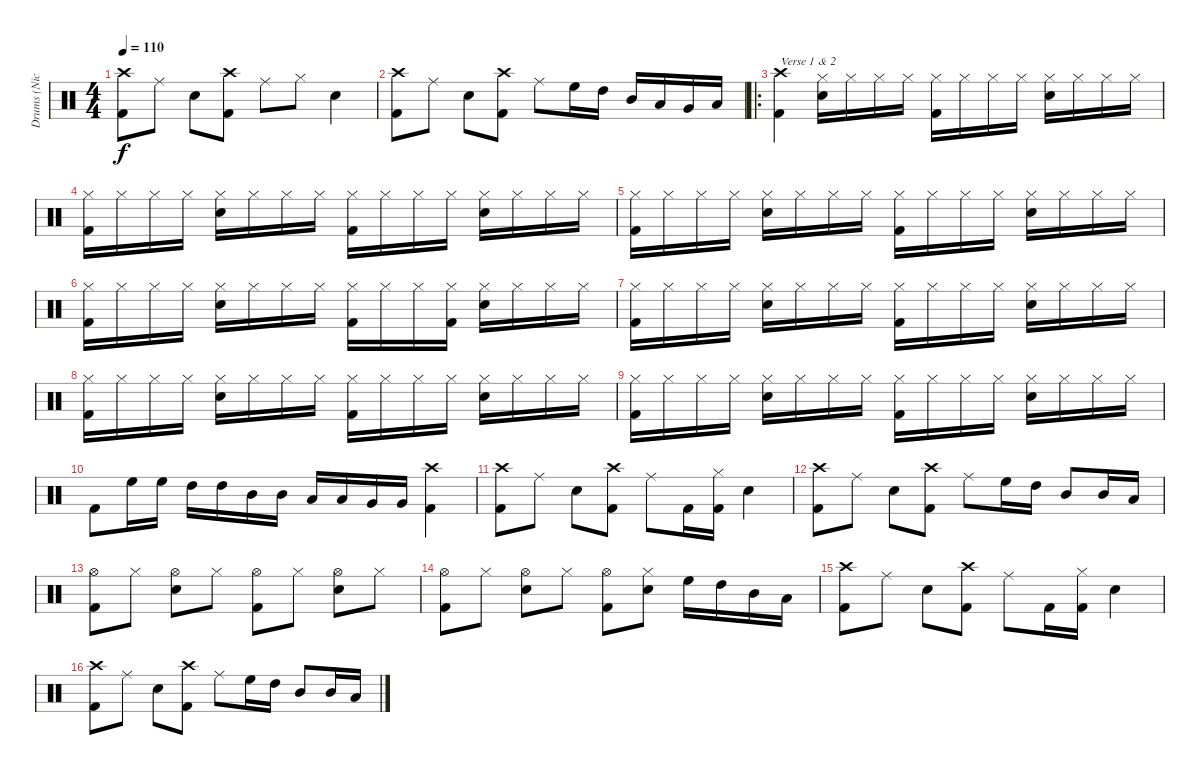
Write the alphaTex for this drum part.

\track ("Drums (Nicko)" "Drums (Nic") {instrument percussion}
\staff {score}
\articulation defaults
\ts (4 4)
\tempo 110
\clef neutral
\ks c
("Crash high (hit)" "Kick (hit) 2").8{dy f} "Ride (middle)".8 "Snare (hit) 2".8 ("Crash high (hit)" "Kick (hit) 2").8 "Ride (middle)".8 "Hi-Hat (closed)".8 "Snare (hit) 2".4 |
("Crash high (hit)" "Kick (hit) 2").8 "Ride (middle)".8 "Snare (hit) 2".8 ("Crash high (hit)" "Kick (hit) 2").8 "Ride (middle)".8 "High Floor Tom (hit)".16 "High Tom (hit)".16 "Mid Tom (hit)".16 "Low Tom (hit)".16 "Very Low Tom (hit)".16 "Low Floor Tom (hit)".16 |
\ro
("Crash high (hit)" "Kick (hit) 2").4{txt "Verse 1 & 2"} ("Hi-Hat (closed)" "Snare (hit) 2").16 "Hi-Hat (closed)".16 "Hi-Hat (closed)".16 "Hi-Hat (closed)".16 ("Hi-Hat (closed)" "Kick (hit) 2").16 "Hi-Hat (closed)".16 "Hi-Hat (closed)".16 "Hi-Hat (closed)".16 ("Hi-Hat (closed)" "Snare (hit) 2").16 "Hi-Hat (closed)".16 "Hi-Hat (closed)".16 "Hi-Hat (closed)".16 |
("Hi-Hat (closed)" "Kick (hit) 2").16 "Hi-Hat (closed)".16 "Hi-Hat (closed)".16 "Hi-Hat (closed)".16 ("Hi-Hat (closed)" "Snare (hit) 2").16 "Hi-Hat (closed)".16 "Hi-Hat (closed)".16 "Hi-Hat (closed)".16 ("Hi-Hat (closed)" "Kick (hit) 2").16 "Hi-Hat (closed)".16 "Hi-Hat (closed)".16 "Hi-Hat (closed)".16 ("Hi-Hat (closed)" "Snare (hit) 2").16 "Hi-Hat (closed)".16 "Hi-Hat (closed)".16 "Hi-Hat (closed)".16 |
("Hi-Hat (closed)" "Kick (hit) 2").16 "Hi-Hat (closed)".16 "Hi-Hat (closed)".16 "Hi-Hat (closed)".16 ("Hi-Hat (closed)" "Snare (hit) 2").16 "Hi-Hat (closed)".16 "Hi-Hat (closed)".16 "Hi-Hat (closed)".16 ("Hi-Hat (closed)" "Kick (hit) 2").16 "Hi-Hat (closed)".16 "Hi-Hat (closed)".16 "Hi-Hat (closed)".16 ("Hi-Hat (closed)" "Snare (hit) 2").16 "Hi-Hat (closed)".16 "Hi-Hat (closed)".16 "Hi-Hat (closed)".16 |
("Hi-Hat (closed)" "Kick (hit) 2").16 "Hi-Hat (closed)".16 "Hi-Hat (closed)".16 "Hi-Hat (closed)".16 ("Hi-Hat (closed)" "Snare (hit) 2").16 "Hi-Hat (closed)".16 "Hi-Hat (closed)".16 "Hi-Hat (closed)".16 ("Hi-Hat (closed)" "Kick (hit) 2").16 "Hi-Hat (closed)".16 "Hi-Hat (closed)".16 ("Hi-Hat (closed)" "Kick (hit) 2").16 ("Hi-Hat (closed)" "Snare (hit) 2").16 "Hi-Hat (closed)".16 "Hi-Hat (closed)".16 "Hi-Hat (closed)".16 |
("Hi-Hat (closed)" "Kick (hit) 2").16 "Hi-Hat (closed)".16 "Hi-Hat (closed)".16 "Hi-Hat (closed)".16 ("Hi-Hat (closed)" "Snare (hit) 2").16 "Hi-Hat (closed)".16 "Hi-Hat (closed)".16 "Hi-Hat (closed)".16 ("Hi-Hat (closed)" "Kick (hit) 2").16 "Hi-Hat (closed)".16 "Hi-Hat (closed)".16 "Hi-Hat (closed)".16 ("Hi-Hat (closed)" "Snare (hit) 2").16 "Hi-Hat (closed)".16 "Hi-Hat (closed)".16 "Hi-Hat (closed)".16 |
("Hi-Hat (closed)" "Kick (hit) 2").16 "Hi-Hat (closed)".16 "Hi-Hat (closed)".16 "Hi-Hat (closed)".16 ("Hi-Hat (closed)" "Snare (hit) 2").16 "Hi-Hat (closed)".16 "Hi-Hat (closed)".16 "Hi-Hat (closed)".16 ("Hi-Hat (closed)" "Kick (hit) 2").16 "Hi-Hat (closed)".16 "Hi-Hat (closed)".16 "Hi-Hat (closed)".16 ("Hi-Hat (closed)" "Snare (hit) 2").16 "Hi-Hat (closed)".16 "Hi-Hat (closed)".16 "Hi-Hat (closed)".16 |
("Hi-Hat (closed)" "Kick (hit) 2").16 "Hi-Hat (closed)".16 "Hi-Hat (closed)".16 "Hi-Hat (closed)".16 ("Hi-Hat (closed)" "Snare (hit) 2").16 "Hi-Hat (closed)".16 "Hi-Hat (closed)".16 "Hi-Hat (closed)".16 ("Hi-Hat (closed)" "Kick (hit) 2").16 "Hi-Hat (closed)".16 "Hi-Hat (closed)".16 "Hi-Hat (closed)".16 ("Hi-Hat (closed)" "Snare (hit) 2").16 "Hi-Hat (closed)".16 "Hi-Hat (closed)".16 "Hi-Hat (closed)".16 |
"Kick (hit) 2".8 "High Floor Tom (hit)".16 "High Floor Tom (hit)".16 "High Tom (hit)".16 "High Tom (hit)".16 "Mid Tom (hit)".16 "Mid Tom (hit)".16 "Low Tom (hit)".16 "Low Tom (hit)".16 "Very Low Tom (hit)".16 "Very Low Tom (hit)".16 ("Crash high (hit)" "Kick (hit) 2").4 |
("Crash high (hit)" "Kick (hit) 2").8 "Ride (middle)".8 "Snare (hit) 2".8 ("Crash high (hit)" "Kick (hit) 2").8 "Ride (middle)".8 "Kick (hit) 2".16 ("Hi-Hat (closed)" "Kick (hit) 2").16 "Snare (hit) 2".4 |
("Crash high (hit)" "Kick (hit) 2").8 "Ride (middle)".8 "Snare (hit) 2".8 ("Crash high (hit)" "Kick (hit) 2").8 "Ride (middle)".8 "High Floor Tom (hit)".16 "High Tom (hit)".16 "Mid Tom (hit)".8 "Mid Tom (hit)".16 "Low Tom (hit)".16 |
("Hi-Hat (open)" "Kick (hit) 2").8 "Hi-Hat (closed)".8 ("Hi-Hat (open)" "Snare (hit) 2").8 "Hi-Hat (closed)".8 ("Hi-Hat (open)" "Kick (hit) 2").8 "Hi-Hat (closed)".8 ("Hi-Hat (open)" "Snare (hit) 2").8 "Hi-Hat (closed)".8 |
("Hi-Hat (open)" "Kick (hit) 2").8 "Hi-Hat (closed)".8 ("Hi-Hat (open)" "Snare (hit) 2").8 "Hi-Hat (closed)".8 ("Hi-Hat (open)" "Kick (hit) 2").8 ("Hi-Hat (closed)" "Snare (hit) 2").8 "High Floor Tom (hit)".16 "High Tom (hit)".16 "Mid Tom (hit)".16 "Low Tom (hit)".16 |
("Crash high (hit)" "Kick (hit) 2").8 "Ride (middle)".8 "Snare (hit) 2".8 ("Crash high (hit)" "Kick (hit) 2").8 "Ride (middle)".8 "Kick (hit) 2".16 ("Hi-Hat (closed)" "Kick (hit) 2").16 "Snare (hit) 2".4 |
("Crash high (hit)" "Kick (hit) 2").8 "Ride (middle)".8 "Snare (hit) 2".8 ("Crash high (hit)" "Kick (hit) 2").8 "Ride (middle)".8 "High Floor Tom (hit)".16 "High Tom (hit)".16 "Mid Tom (hit)".8 "Mid Tom (hit)".16 "Low Tom (hit)".16
